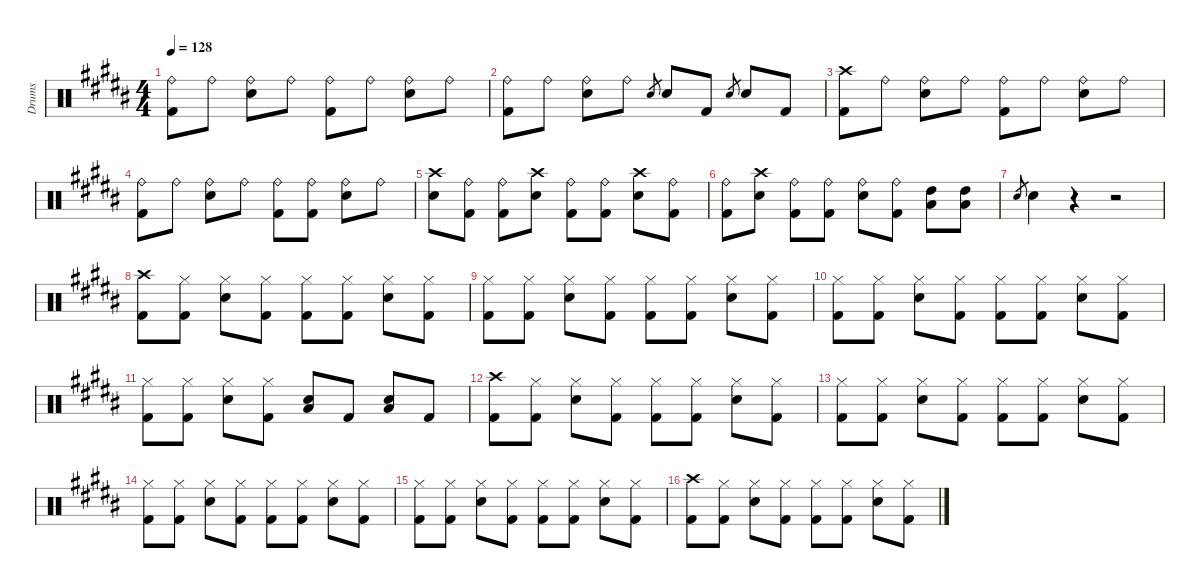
\hideDynamics
\bracketExtendMode nobrackets
\otherSystemsTrackNameOrientation horizontal
\track ("Drumkit" "Drums") {instrument percussion}
\staff {score}
\articulation defaults
\ts (4 4)
\tempo 128
\clef neutral
\scale
0.333333
\ks b
("Ride (bell)"{acc bb} "Kick (hit) 2"{acc bb}).8{dy mf beam Down} "Ride (bell)"{acc bb}.8{beam Down} ("Ride (bell)"{acc bb} "Snare (hit) 2"{acc bb}).8{beam Down} "Ride (bell)"{acc bb}.8{beam Down} ("Ride (bell)"{acc bb} "Kick (hit) 2"{acc bb}).8{beam Down} "Ride (bell)"{acc bb}.8{beam Down} ("Ride (bell)"{acc bb} "Snare (hit) 2"{acc bb}).8{beam Down} "Ride (bell)"{acc bb}.8{beam Down} |
\scale
0.333333 ("Ride (bell)"{acc bb} "Kick (hit) 2"{acc bb}).8{beam Down} "Ride (bell)"{acc bb}.8{beam Down} ("Ride (bell)"{acc bb} "Snare (hit) 2"{acc bb}).8{beam Down} "Ride (bell)"{acc bb}.8{beam Down} "Snare (hit) 2"{acc bb}.8{gr beam Up} "Snare (hit) 2"{acc bb}.8{beam Up} "Kick (hit) 2"{acc bb}.8{beam Up} "Snare (hit) 2"{acc bb}.8{gr beam Up} "Snare (hit) 2"{acc bb}.8{beam Up} "Kick (hit) 2"{acc bb}.8{beam Up} |
\scale
0.333333 ("Kick (hit) 2"{acc bb} "Crash high (hit)"{acc bb}).8{beam Down} "Ride (bell)"{acc bb}.8{beam Down} ("Ride (bell)"{acc bb} "Snare (hit) 2"{acc bb}).8{beam Down} "Ride (bell)"{acc bb}.8{beam Down} ("Ride (bell)"{acc bb} "Kick (hit) 2"{acc bb}).8{beam Down} "Ride (bell)"{acc bb}.8{beam Down} ("Ride (bell)"{acc bb} "Snare (hit) 2"{acc bb}).8{beam Down} "Ride (bell)"{acc bb}.8{beam Down} |
\scale
0.333333 ("Ride (bell)"{acc bb} "Kick (hit) 2"{acc bb}).8{beam Down} "Ride (bell)"{acc bb}.8{beam Down} ("Ride (bell)"{acc bb} "Snare (hit) 2"{acc bb}).8{beam Down} "Ride (bell)"{acc bb}.8{beam Down} ("Ride (bell)"{acc bb} "Kick (hit) 2"{acc bb}).8{beam Down} ("Ride (bell)"{acc bb} "Kick (hit) 2"{acc bb}).8{beam Down} ("Ride (bell)"{acc bb} "Snare (hit) 2"{acc bb}).8{beam Down} "Ride (bell)"{acc bb}.8{beam Down} |
\scale
0.333333 ("Snare (hit) 2"{acc bb} "Crash high (hit)"{acc bb}).8{beam Down} ("Ride (bell)"{acc bb} "Kick (hit) 2"{acc bb}).8{beam Down} ("Ride (bell)"{acc bb} "Kick (hit) 2"{acc bb}).8{beam Down} ("Snare (hit) 2"{acc bb} "Crash high (hit)"{acc bb}).8{beam Down} ("Ride (bell)"{acc bb} "Kick (hit) 2"{acc bb}).8{beam Down} ("Ride (bell)"{acc bb} "Kick (hit) 2"{acc bb}).8{beam Down} ("Snare (hit) 2"{acc bb} "Crash high (hit)"{acc bb}).8{beam Down} ("Ride (bell)"{acc bb} "Kick (hit) 2"{acc bb}).8{beam Down} |
\scale
0.333333 ("Kick (hit) 2"{acc bb} "Ride (bell)"{acc bb}).8{beam Down} ("Snare (hit) 2"{acc bb} "Crash high (hit)"{acc bb}).8{beam Down} ("Kick (hit) 2"{acc bb} "Ride (bell)"{acc bb}).8{beam Down} ("Kick (hit) 2"{acc bb} "Ride (bell)"{acc bb}).8{beam Down} ("Snare (hit) 2"{acc bb} "Ride (bell)"{acc bb}).8{beam Down} ("Kick (hit) 2"{acc bb} "Ride (bell)"{acc bb}).8{beam Down} ("Low Tom (hit)"{acc bb} "High Tom (hit)"{acc bb}).8{beam Down} ("Low Tom (hit)"{acc bb} "High Tom (hit)"{acc bb}).8{beam Down} |
\scale
0.333333 "Snare (hit) 2"{acc bb}.8{gr beam Up} "Snare (hit) 2"{acc bb}.4{beam Down} r.4{beam Down} r.2{beam Down} |
\scale
0.333333 ("Crash high (hit)"{acc bb} "Kick (hit) 2"{acc bb}).8{beam Down} ("Kick (hit) 2"{acc bb} "Hi-Hat (closed)"{acc bb}).8{beam Down} ("Snare (hit) 2"{acc bb} "Hi-Hat (closed)"{acc bb}).8{beam Down} ("Kick (hit) 2"{acc bb} "Hi-Hat (closed)"{acc bb}).8{beam Down} ("Kick (hit) 2"{acc bb} "Hi-Hat (closed)"{acc bb}).8{beam Down} ("Kick (hit) 2"{acc bb} "Hi-Hat (closed)"{acc bb}).8{beam Down} ("Snare (hit) 2"{acc bb} "Hi-Hat (closed)"{acc bb}).8{beam Down} ("Kick (hit) 2"{acc bb} "Hi-Hat (closed)"{acc bb}).8{beam Down} |
\scale
0.333333 ("Kick (hit) 2"{acc bb} "Hi-Hat (closed)"{acc bb}).8{beam Down} ("Kick (hit) 2"{acc bb} "Hi-Hat (closed)"{acc bb}).8{beam Down} ("Snare (hit) 2"{acc bb} "Hi-Hat (closed)"{acc bb}).8{beam Down} ("Kick (hit) 2"{acc bb} "Hi-Hat (closed)"{acc bb}).8{beam Down} ("Kick (hit) 2"{acc bb} "Hi-Hat (closed)"{acc bb}).8{beam Down} ("Kick (hit) 2"{acc bb} "Hi-Hat (closed)"{acc bb}).8{beam Down} ("Snare (hit) 2"{acc bb} "Hi-Hat (closed)"{acc bb}).8{beam Down} ("Kick (hit) 2"{acc bb} "Hi-Hat (closed)"{acc bb}).8{beam Down} |
\scale
0.333333 ("Kick (hit) 2"{acc bb} "Hi-Hat (closed)"{acc bb}).8{beam Down} ("Kick (hit) 2"{acc bb} "Hi-Hat (closed)"{acc bb}).8{beam Down} ("Snare (hit) 2"{acc bb} "Hi-Hat (closed)"{acc bb}).8{beam Down} ("Kick (hit) 2"{acc bb} "Hi-Hat (closed)"{acc bb}).8{beam Down} ("Kick (hit) 2"{acc bb} "Hi-Hat (closed)"{acc bb}).8{beam Down} ("Kick (hit) 2"{acc bb} "Hi-Hat (closed)"{acc bb}).8{beam Down} ("Snare (hit) 2"{acc bb} "Hi-Hat (closed)"{acc bb}).8{beam Down} ("Kick (hit) 2"{acc bb} "Hi-Hat (closed)"{acc bb}).8{beam Down} |
\scale
0.333333 ("Kick (hit) 2"{acc bb} "Hi-Hat (closed)"{acc bb}).8{beam Down} ("Kick (hit) 2"{acc bb} "Hi-Hat (closed)"{acc bb}).8{beam Down} ("Snare (hit) 2"{acc bb} "Hi-Hat (closed)"{acc bb}).8{beam Down} ("Kick (hit) 2"{acc bb} "Hi-Hat (closed)"{acc bb}).8{beam Down} ("Snare (hit) 2"{acc bb} "Low Tom (hit)"{acc bb}).8{beam Up} "Kick (hit) 2"{acc bb}.8{beam Up} ("Snare (hit) 2"{acc bb} "Low Tom (hit)"{acc bb}).8{beam Up} "Kick (hit) 2"{acc bb}.8{beam Up} |
\scale
0.333333 ("Crash high (hit)"{acc bb} "Kick (hit) 2"{acc bb}).8{beam Down} ("Kick (hit) 2"{acc bb} "Hi-Hat (closed)"{acc bb}).8{beam Down} ("Snare (hit) 2"{acc bb} "Hi-Hat (closed)"{acc bb}).8{beam Down} ("Kick (hit) 2"{acc bb} "Hi-Hat (closed)"{acc bb}).8{beam Down} ("Kick (hit) 2"{acc bb} "Hi-Hat (closed)"{acc bb}).8{beam Down} ("Kick (hit) 2"{acc bb} "Hi-Hat (closed)"{acc bb}).8{beam Down} ("Snare (hit) 2"{acc bb} "Hi-Hat (closed)"{acc bb}).8{beam Down} ("Kick (hit) 2"{acc bb} "Hi-Hat (closed)"{acc bb}).8{beam Down} |
\scale
0.333333 ("Kick (hit) 2"{acc bb} "Hi-Hat (closed)"{acc bb}).8{beam Down} ("Kick (hit) 2"{acc bb} "Hi-Hat (closed)"{acc bb}).8{beam Down} ("Snare (hit) 2"{acc bb} "Hi-Hat (closed)"{acc bb}).8{beam Down} ("Kick (hit) 2"{acc bb} "Hi-Hat (closed)"{acc bb}).8{beam Down} ("Kick (hit) 2"{acc bb} "Hi-Hat (closed)"{acc bb}).8{beam Down} ("Kick (hit) 2"{acc bb} "Hi-Hat (closed)"{acc bb}).8{beam Down} ("Snare (hit) 2"{acc bb} "Hi-Hat (closed)"{acc bb}).8{beam Down} ("Kick (hit) 2"{acc bb} "Hi-Hat (closed)"{acc bb}).8{beam Down} |
\scale
0.333333 ("Kick (hit) 2"{acc bb} "Hi-Hat (closed)"{acc bb}).8{beam Down} ("Kick (hit) 2"{acc bb} "Hi-Hat (closed)"{acc bb}).8{beam Down} ("Snare (hit) 2"{acc bb} "Hi-Hat (closed)"{acc bb}).8{beam Down} ("Kick (hit) 2"{acc bb} "Hi-Hat (closed)"{acc bb}).8{beam Down} ("Kick (hit) 2"{acc bb} "Hi-Hat (closed)"{acc bb}).8{beam Down} ("Kick (hit) 2"{acc bb} "Hi-Hat (closed)"{acc bb}).8{beam Down} ("Snare (hit) 2"{acc bb} "Hi-Hat (closed)"{acc bb}).8{beam Down} ("Kick (hit) 2"{acc bb} "Hi-Hat (closed)"{acc bb}).8{beam Down} |
\scale
0.333333 ("Kick (hit) 2"{acc bb} "Hi-Hat (closed)"{acc bb}).8{beam Down} ("Kick (hit) 2"{acc bb} "Hi-Hat (closed)"{acc bb}).8{beam Down} ("Snare (hit) 2"{acc bb} "Hi-Hat (closed)"{acc bb}).8{beam Down} ("Kick (hit) 2"{acc bb} "Hi-Hat (closed)"{acc bb}).8{beam Down} ("Kick (hit) 2"{acc bb} "Hi-Hat (closed)"{acc bb}).8{beam Down} ("Kick (hit) 2"{acc bb} "Hi-Hat (closed)"{acc bb}).8{beam Down} ("Snare (hit) 2"{acc bb} "Hi-Hat (closed)"{acc bb}).8{beam Down} ("Kick (hit) 2"{acc bb} "Hi-Hat (closed)"{acc bb}).8{beam Down} |
\scale
0.333333 ("Crash high (hit)"{acc bb} "Kick (hit) 2"{acc bb}).8{beam Down} ("Kick (hit) 2"{acc bb} "Hi-Hat (closed)"{acc bb}).8{beam Down} ("Snare (hit) 2"{acc bb} "Hi-Hat (closed)"{acc bb}).8{beam Down} ("Kick (hit) 2"{acc bb} "Hi-Hat (closed)"{acc bb}).8{beam Down} ("Kick (hit) 2"{acc bb} "Hi-Hat (closed)"{acc bb}).8{beam Down} ("Kick (hit) 2"{acc bb} "Hi-Hat (closed)"{acc bb}).8{beam Down} ("Snare (hit) 2"{acc bb} "Hi-Hat (closed)"{acc bb}).8{beam Down} ("Kick (hit) 2"{acc bb} "Hi-Hat (closed)"{acc bb}).8{beam Down}
